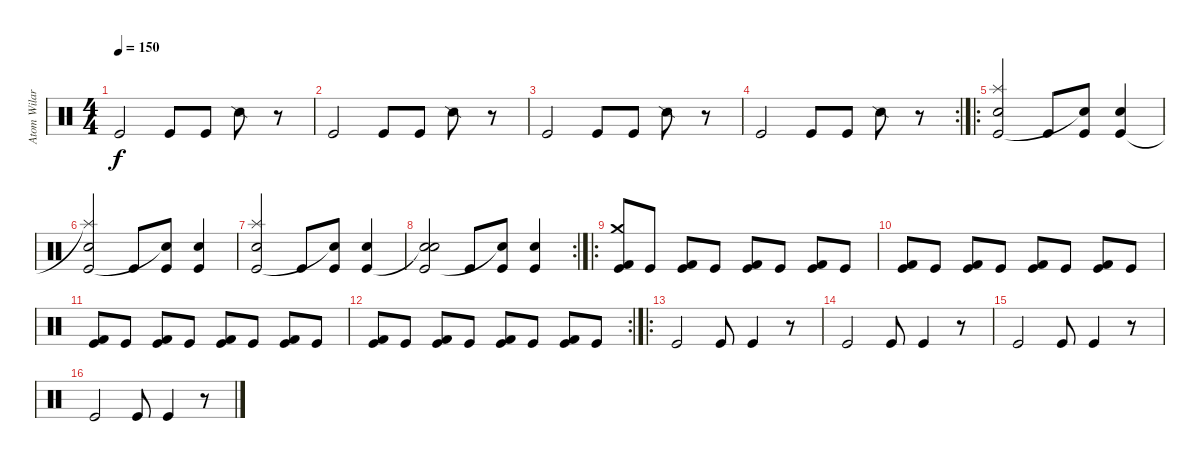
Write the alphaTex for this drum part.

\track ("Atom Wilard" "Atom Wilar") {instrument percussion}
\staff {score}
\articulation defaults
\ts (4 4)
\tempo 150
\clef neutral
\ks c "Kick (hit)".2{dy f} "Kick (hit)".8 "Kick (hit)".8 "Snare (side stick) 2".8
r.8 |
"Kick (hit)".2 "Kick (hit)".8 "Kick (hit)".8 "Snare (side stick) 2".8 r.8 |
"Kick (hit)".2 "Kick (hit)".8 "Kick (hit)".8 "Snare (side stick) 2".8 r.8 |
\rc 2 "Kick (hit)".2 "Kick (hit)".8 "Kick (hit)".8 "Snare (side stick) 2".8
r.8 |
\ro
("Splash (hit)" "Kick (hit)" "Snare (hit) 2").2 "Kick (hit)".8 ("Kick (hit)" "Snare (hit)"{t}).8 ("Kick (hit)" "Snare (hit) 2").4 |
("Splash (hit)"{t} "Kick (hit)" "Snare (hit) 2").2 "Kick (hit)".8 ("Kick (hit)" "Snare (hit)"{t}).8 ("Kick (hit)" "Snare (hit) 2").4 |
("Splash (hit)" "Kick (hit)" "Snare (hit) 2").2 "Kick (hit)".8 ("Kick (hit)" "Snare (hit)"{t}).8 ("Kick (hit)" "Snare (hit) 2").4 |
\rc 2
("Snare (hit)"{t} "Kick (hit)" "Snare (hit) 2").2 "Kick (hit)".8 ("Kick (hit)" "Snare (hit)"{t}).8 ("Kick (hit)" "Snare (hit) 2").4 |
\ro
("Crash medium (hit)" "Kick (hit) 2" "Kick (hit)").8 "Kick (hit)".8 ("Kick (hit) 2" "Kick (hit)").8 "Kick (hit)".8 ("Kick (hit) 2" "Kick (hit)").8 "Kick (hit)".8 ("Kick (hit) 2" "Kick (hit)").8 "Kick (hit)".8 |
("Kick (hit) 2" "Kick (hit)").8 "Kick (hit)".8 ("Kick (hit) 2" "Kick (hit)").8 "Kick (hit)".8 ("Kick (hit) 2" "Kick (hit)").8 "Kick (hit)".8 ("Kick (hit) 2" "Kick (hit)").8 "Kick (hit)".8 |
("Kick (hit) 2" "Kick (hit)").8 "Kick (hit)".8 ("Kick (hit) 2" "Kick (hit)").8 "Kick (hit)".8 ("Kick (hit) 2" "Kick (hit)").8 "Kick (hit)".8 ("Kick (hit) 2" "Kick (hit)").8 "Kick (hit)".8 |
\rc 2
("Kick (hit) 2" "Kick (hit)").8 "Kick (hit)".8 ("Kick (hit) 2" "Kick (hit)").8 "Kick (hit)".8 ("Kick (hit) 2" "Kick (hit)").8 "Kick (hit)".8 ("Kick (hit) 2" "Kick (hit)").8 "Kick (hit)".8 |
\ro "Kick (hit)".2 "Kick (hit)".8 "Kick (hit)".4
r.8 |
"Kick (hit)".2 "Kick (hit)".8 "Kick (hit)".4 r.8 |
"Kick (hit)".2 "Kick (hit)".8 "Kick (hit)".4 r.8 |
"Kick (hit)".2 "Kick (hit)".8 "Kick (hit)".4 r.8
